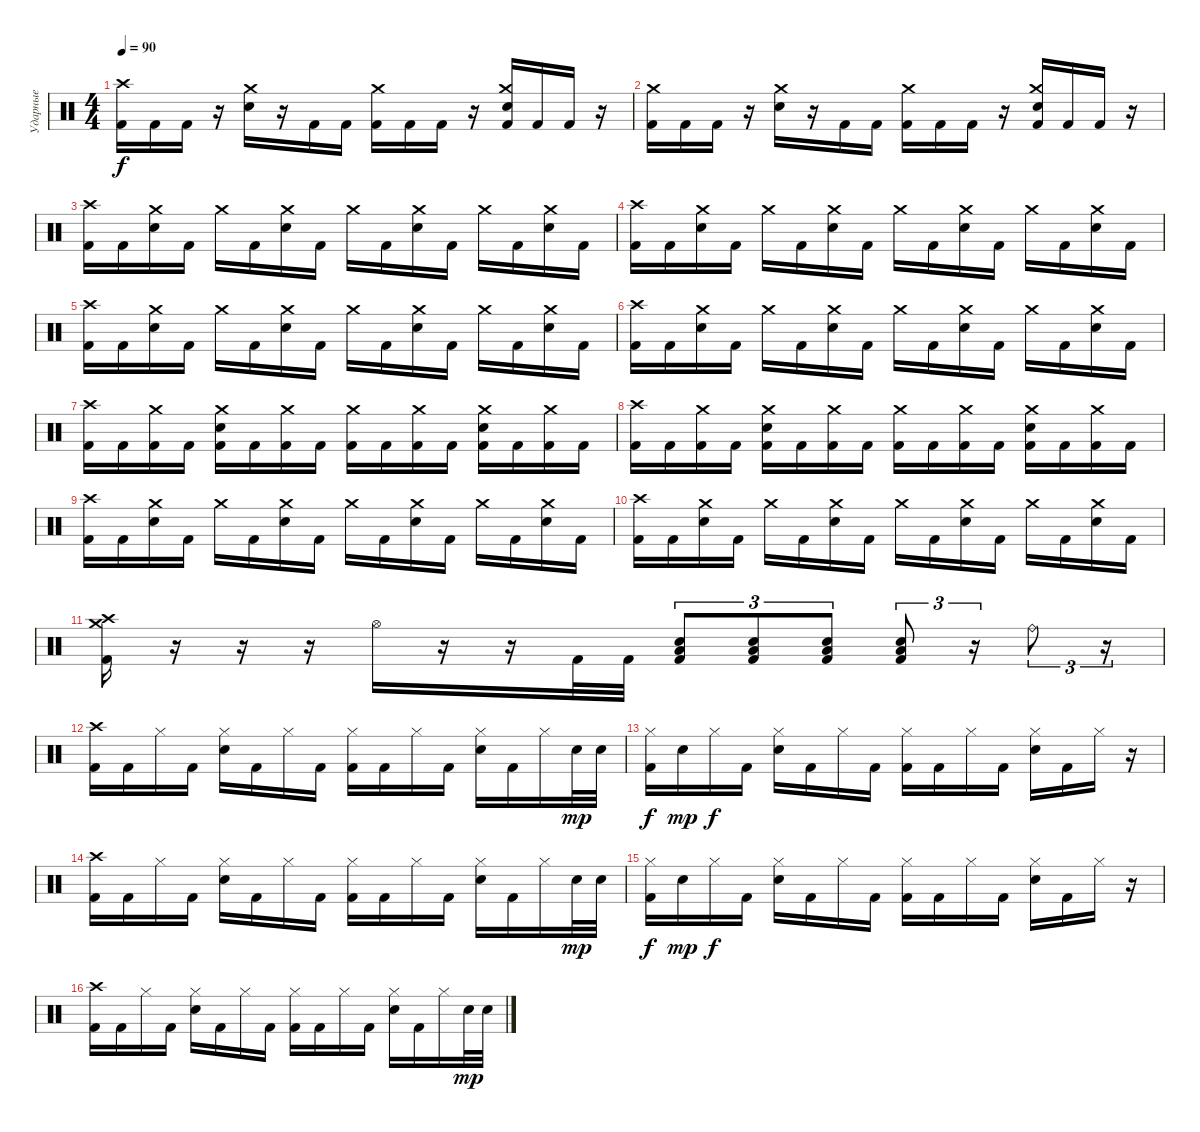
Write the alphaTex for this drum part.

\track ("Ударные" "Ударные") {instrument percussion}
\staff {score}
\articulation defaults
\ts (4 4)
\tempo 90
\clef neutral
\ks c
("Crash high (hit)" "Kick (hit) 2").16{dy f} "Kick (hit) 2".16 "Kick (hit) 2".16 r.16 ("Crash medium (hit)" "Electric Snare (hit)").16 r.16 "Kick (hit) 2".16 "Kick (hit) 2".16 ("Crash medium (hit)" "Kick (hit) 2").16 "Kick (hit) 2".16 "Kick (hit) 2".16 r.16 ("Crash medium (hit)" "Electric Snare (hit)" "Kick (hit) 2").16 "Kick (hit) 2".16 "Kick (hit) 2".16 r.16 |
("Crash medium (hit)" "Kick (hit) 2").16 "Kick (hit) 2".16 "Kick (hit) 2".16 r.16 ("Crash medium (hit)" "Electric Snare (hit)").16 r.16 "Kick (hit) 2".16 "Kick (hit) 2".16 ("Crash medium (hit)" "Kick (hit) 2").16 "Kick (hit) 2".16 "Kick (hit) 2".16 r.16 ("Crash medium (hit)" "Electric Snare (hit)" "Kick (hit) 2").16 "Kick (hit) 2".16 "Kick (hit) 2".16 r.16 |
("Crash high (hit)" "Kick (hit) 2").16 "Kick (hit) 2".16 ("Crash medium (hit)" "Electric Snare (hit)").16 "Kick (hit) 2".16 "Crash medium (hit)".16 "Kick (hit) 2".16 ("Crash medium (hit)" "Electric Snare (hit)").16 "Kick (hit) 2".16 "Crash medium (hit)".16 "Kick (hit) 2".16 ("Crash medium (hit)" "Electric Snare (hit)").16 "Kick (hit) 2".16 "Crash medium (hit)".16 "Kick (hit) 2".16 ("Crash medium (hit)" "Electric Snare (hit)").16 "Kick (hit) 2".16 |
("Crash high (hit)" "Kick (hit) 2").16 "Kick (hit) 2".16 ("Crash medium (hit)" "Electric Snare (hit)").16 "Kick (hit) 2".16 "Crash medium (hit)".16 "Kick (hit) 2".16 ("Crash medium (hit)" "Electric Snare (hit)").16 "Kick (hit) 2".16 "Crash medium (hit)".16 "Kick (hit) 2".16 ("Crash medium (hit)" "Electric Snare (hit)").16 "Kick (hit) 2".16 "Crash medium (hit)".16 "Kick (hit) 2".16 ("Crash medium (hit)" "Electric Snare (hit)").16 "Kick (hit) 2".16 |
("Crash high (hit)" "Kick (hit) 2").16 "Kick (hit) 2".16 ("Crash medium (hit)" "Electric Snare (hit)").16 "Kick (hit) 2".16 "Crash medium (hit)".16 "Kick (hit) 2".16 ("Crash medium (hit)" "Electric Snare (hit)").16 "Kick (hit) 2".16 "Crash medium (hit)".16 "Kick (hit) 2".16 ("Crash medium (hit)" "Electric Snare (hit)").16 "Kick (hit) 2".16 "Crash medium (hit)".16 "Kick (hit) 2".16 ("Crash medium (hit)" "Electric Snare (hit)").16 "Kick (hit) 2".16 |
("Crash high (hit)" "Kick (hit) 2").16 "Kick (hit) 2".16 ("Crash medium (hit)" "Electric Snare (hit)").16 "Kick (hit) 2".16 "Crash medium (hit)".16 "Kick (hit) 2".16 ("Crash medium (hit)" "Electric Snare (hit)").16 "Kick (hit) 2".16 "Crash medium (hit)".16 "Kick (hit) 2".16 ("Crash medium (hit)" "Electric Snare (hit)").16 "Kick (hit) 2".16 "Crash medium (hit)".16 "Kick (hit) 2".16 ("Crash medium (hit)" "Electric Snare (hit)").16 "Kick (hit) 2".16 |
("Crash high (hit)" "Kick (hit) 2").16 "Kick (hit) 2".16 ("Crash medium (hit)" "Kick (hit) 2").16 "Kick (hit) 2".16 ("Crash medium (hit)" "Electric Snare (hit)" "Kick (hit) 2").16 "Kick (hit) 2".16 ("Crash medium (hit)" "Kick (hit) 2").16 "Kick (hit) 2".16 ("Crash medium (hit)" "Kick (hit) 2").16 "Kick (hit) 2".16 ("Crash medium (hit)" "Kick (hit) 2").16 "Kick (hit) 2".16 ("Crash medium (hit)" "Electric Snare (hit)" "Kick (hit) 2").16 "Kick (hit) 2".16 ("Crash medium (hit)" "Kick (hit) 2").16 "Kick (hit) 2".16 |
("Crash high (hit)" "Kick (hit) 2").16 "Kick (hit) 2".16 ("Crash medium (hit)" "Kick (hit) 2").16 "Kick (hit) 2".16 ("Crash medium (hit)" "Electric Snare (hit)" "Kick (hit) 2").16 "Kick (hit) 2".16 ("Crash medium (hit)" "Kick (hit) 2").16 "Kick (hit) 2".16 ("Crash medium (hit)" "Kick (hit) 2").16 "Kick (hit) 2".16 ("Crash medium (hit)" "Kick (hit) 2").16 "Kick (hit) 2".16 ("Crash medium (hit)" "Electric Snare (hit)" "Kick (hit) 2").16 "Kick (hit) 2".16 ("Crash medium (hit)" "Kick (hit) 2").16 "Kick (hit) 2".16 |
("Crash high (hit)" "Kick (hit) 2").16 "Kick (hit) 2".16 ("Crash medium (hit)" "Electric Snare (hit)").16 "Kick (hit) 2".16 "Crash medium (hit)".16 "Kick (hit) 2".16 ("Crash medium (hit)" "Electric Snare (hit)").16 "Kick (hit) 2".16 "Crash medium (hit)".16 "Kick (hit) 2".16 ("Crash medium (hit)" "Electric Snare (hit)").16 "Kick (hit) 2".16 "Crash medium (hit)".16 "Kick (hit) 2".16 ("Crash medium (hit)" "Electric Snare (hit)").16 "Kick (hit) 2".16 |
("Crash high (hit)" "Kick (hit) 2").16 "Kick (hit) 2".16 ("Crash medium (hit)" "Electric Snare (hit)").16 "Kick (hit) 2".16 "Crash medium (hit)".16 "Kick (hit) 2".16 ("Crash medium (hit)" "Electric Snare (hit)").16 "Kick (hit) 2".16 "Crash medium (hit)".16 "Kick (hit) 2".16 ("Crash medium (hit)" "Electric Snare (hit)").16 "Kick (hit) 2".16 "Crash medium (hit)".16 "Kick (hit) 2".16 ("Crash medium (hit)" "Electric Snare (hit)").16 "Kick (hit) 2".16 |
("Crash high (hit)" "Crash medium (hit)" "Kick (hit) 2").16 r.16 r.16 r.16 "Hi-Hat (open)".16 r.16 r.16 "Kick (hit) 2".32 "Kick (hit) 2".32 ("Electric Snare (hit)" "Low Floor Tom (hit)" "Kick (hit) 2").8{tu (3 2)} ("Electric Snare (hit)" "Low Floor Tom (hit)" "Kick (hit) 2").8{tu (3 2)} ("Electric Snare (hit)" "Low Floor Tom (hit)" "Kick (hit) 2").8{tu (3 2)} ("Electric Snare (hit)" "Low Floor Tom (hit)" "Kick (hit) 2").8{tu (3 2)} r.16{tu (3 2)} "Ride (bell)".8{tu (3 2)} r.16{tu (3 2)} |
("Crash high (hit)" "Kick (hit) 2").16 "Kick (hit) 2".16 "Hi-Hat (closed)".16 "Kick (hit) 2".16 ("Hi-Hat (closed)" "Electric Snare (hit)").16 "Kick (hit) 2".16 "Hi-Hat (closed)".16 "Kick (hit) 2".16 ("Hi-Hat (closed)" "Kick (hit) 2").16 "Kick (hit) 2".16 "Hi-Hat (closed)".16 "Kick (hit) 2".16 ("Hi-Hat (closed)" "Electric Snare (hit)").16 "Kick (hit) 2".16 "Hi-Hat (closed)".16 "Electric Snare (hit)".32{dy mp} "Electric Snare (hit)".32 |
("Hi-Hat (closed)" "Kick (hit) 2").16{dy f} "Electric Snare (hit)".16{dy mp} "Hi-Hat (closed)".16{dy f} "Kick (hit) 2".16 ("Hi-Hat (closed)" "Electric Snare (hit)").16 "Kick (hit) 2".16 "Hi-Hat (closed)".16 "Kick (hit) 2".16 ("Hi-Hat (closed)" "Kick (hit) 2").16 "Kick (hit) 2".16 "Hi-Hat (closed)".16 "Kick (hit) 2".16 ("Hi-Hat (closed)" "Electric Snare (hit)").16 "Kick (hit) 2".16 "Hi-Hat (closed)".16 r.16 |
("Crash high (hit)" "Kick (hit) 2").16 "Kick (hit) 2".16 "Hi-Hat (closed)".16 "Kick (hit) 2".16 ("Hi-Hat (closed)" "Electric Snare (hit)").16 "Kick (hit) 2".16 "Hi-Hat (closed)".16 "Kick (hit) 2".16 ("Hi-Hat (closed)" "Kick (hit) 2").16 "Kick (hit) 2".16 "Hi-Hat (closed)".16 "Kick (hit) 2".16 ("Hi-Hat (closed)" "Electric Snare (hit)").16 "Kick (hit) 2".16 "Hi-Hat (closed)".16 "Electric Snare (hit)".32{dy mp} "Electric Snare (hit)".32 |
("Hi-Hat (closed)" "Kick (hit) 2").16{dy f} "Electric Snare (hit)".16{dy mp} "Hi-Hat (closed)".16{dy f} "Kick (hit) 2".16 ("Hi-Hat (closed)" "Electric Snare (hit)").16 "Kick (hit) 2".16 "Hi-Hat (closed)".16 "Kick (hit) 2".16 ("Hi-Hat (closed)" "Kick (hit) 2").16 "Kick (hit) 2".16 "Hi-Hat (closed)".16 "Kick (hit) 2".16 ("Hi-Hat (closed)" "Electric Snare (hit)").16 "Kick (hit) 2".16 "Hi-Hat (closed)".16 r.16 |
("Crash high (hit)" "Kick (hit) 2").16 "Kick (hit) 2".16 "Hi-Hat (closed)".16 "Kick (hit) 2".16 ("Hi-Hat (closed)" "Electric Snare (hit)").16 "Kick (hit) 2".16 "Hi-Hat (closed)".16 "Kick (hit) 2".16 ("Hi-Hat (closed)" "Kick (hit) 2").16 "Kick (hit) 2".16 "Hi-Hat (closed)".16 "Kick (hit) 2".16 ("Hi-Hat (closed)" "Electric Snare (hit)").16 "Kick (hit) 2".16 "Hi-Hat (closed)".16 "Electric Snare (hit)".32{dy mp} "Electric Snare (hit)".32
